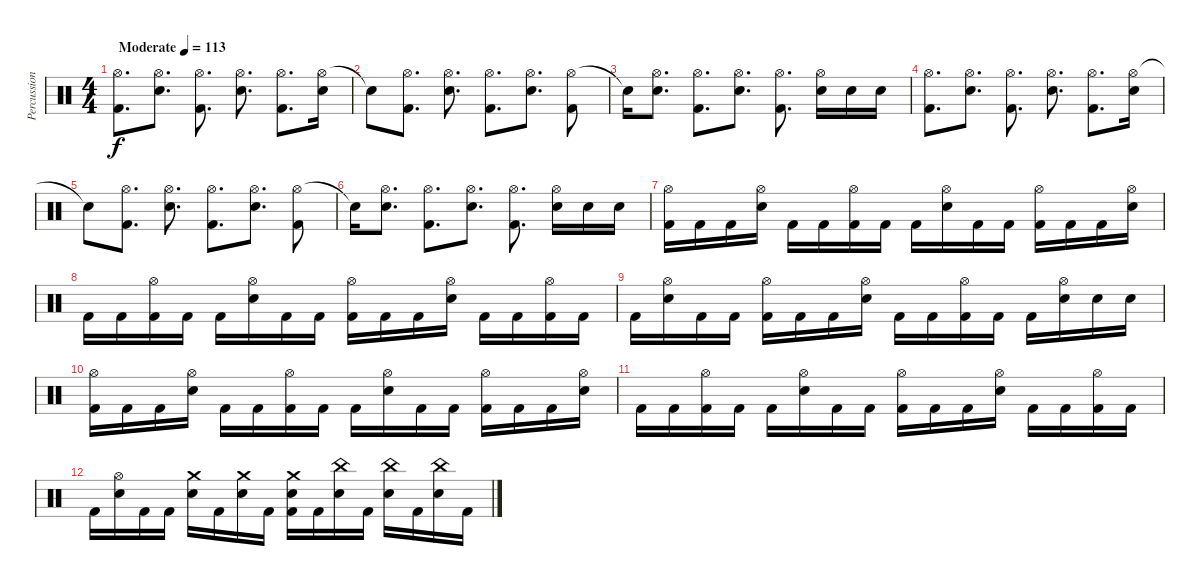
\track ("Percussion" "Percussion") {instrument percussion}
\staff {score}
\articulation defaults
\ts (4 4)
\tempo (113 "Moderate")
\clef neutral
\ks c
("Hi-Hat (open)" "Kick (hit) 2").8{d dy f} ("Hi-Hat (open)" "Electric Snare (hit)").8{d} ("Hi-Hat (open)" "Kick (hit) 2").8{d} ("Hi-Hat (open)" "Electric Snare (hit)").8{d} ("Hi-Hat (open)" "Kick (hit) 2").8{d} ("Hi-Hat (open)" "Electric Snare (hit)").16 |
"Snare (hit)"{t}.8 ("Hi-Hat (open)" "Kick (hit) 2").8{d} ("Hi-Hat (open)" "Electric Snare (hit)").8{d} ("Hi-Hat (open)" "Kick (hit) 2").8{d} ("Hi-Hat (open)" "Electric Snare (hit)").8{d} ("Hi-Hat (open)" "Kick (hit) 2").8 |
"Snare (hit)"{t}.16 ("Hi-Hat (open)" "Electric Snare (hit)").8{d} ("Hi-Hat (open)" "Kick (hit) 2").8{d} ("Hi-Hat (open)" "Electric Snare (hit)").8{d} ("Hi-Hat (open)" "Kick (hit) 2").8{d} ("Hi-Hat (open)" "Electric Snare (hit)").16 "Electric Snare (hit)".16 "Electric Snare (hit)".16 |
("Hi-Hat (open)" "Kick (hit) 2").8{d} ("Hi-Hat (open)" "Electric Snare (hit)").8{d} ("Hi-Hat (open)" "Kick (hit) 2").8{d} ("Hi-Hat (open)" "Electric Snare (hit)").8{d} ("Hi-Hat (open)" "Kick (hit) 2").8{d} ("Hi-Hat (open)" "Electric Snare (hit)").16 |
"Snare (hit)"{t}.8 ("Hi-Hat (open)" "Kick (hit) 2").8{d} ("Hi-Hat (open)" "Electric Snare (hit)").8{d} ("Hi-Hat (open)" "Kick (hit) 2").8{d} ("Hi-Hat (open)" "Electric Snare (hit)").8{d} ("Hi-Hat (open)" "Kick (hit) 2").8 |
"Snare (hit)"{t}.16 ("Hi-Hat (open)" "Electric Snare (hit)").8{d} ("Hi-Hat (open)" "Kick (hit) 2").8{d} ("Hi-Hat (open)" "Electric Snare (hit)").8{d} ("Hi-Hat (open)" "Kick (hit) 2").8{d} ("Hi-Hat (open)" "Electric Snare (hit)").16 "Electric Snare (hit)".16 "Electric Snare (hit)".16 |
("Hi-Hat (open)" "Kick (hit) 2").16 "Kick (hit) 2".16 "Kick (hit) 2".16 ("Hi-Hat (open)" "Electric Snare (hit)").16 "Kick (hit) 2".16 "Kick (hit) 2".16 ("Hi-Hat (open)" "Kick (hit) 2").16 "Kick (hit) 2".16 "Kick (hit) 2".16 ("Hi-Hat (open)" "Electric Snare (hit)").16 "Kick (hit) 2".16 "Kick (hit) 2".16 ("Hi-Hat (open)" "Kick (hit) 2").16 "Kick (hit) 2".16 "Kick (hit) 2".16 ("Hi-Hat (open)" "Electric Snare (hit)").16 |
"Kick (hit) 2".16 "Kick (hit) 2".16 ("Hi-Hat (open)" "Kick (hit) 2").16 "Kick (hit) 2".16 "Kick (hit) 2".16 ("Hi-Hat (open)" "Electric Snare (hit)").16 "Kick (hit) 2".16 "Kick (hit) 2".16 ("Hi-Hat (open)" "Kick (hit) 2").16 "Kick (hit) 2".16 "Kick (hit) 2".16 ("Hi-Hat (open)" "Electric Snare (hit)").16 "Kick (hit) 2".16 "Kick (hit) 2".16 ("Hi-Hat (open)" "Kick (hit) 2").16 "Kick (hit) 2".16 |
"Kick (hit) 2".16 ("Hi-Hat (open)" "Electric Snare (hit)").16 "Kick (hit) 2".16 "Kick (hit) 2".16 ("Hi-Hat (open)" "Kick (hit) 2").16 "Kick (hit) 2".16 "Kick (hit) 2".16 ("Hi-Hat (open)" "Electric Snare (hit)").16 "Kick (hit) 2".16 "Kick (hit) 2".16 ("Hi-Hat (open)" "Kick (hit) 2").16 "Kick (hit) 2".16 "Kick (hit) 2".16 ("Hi-Hat (open)" "Electric Snare (hit)").16 "Electric Snare (hit)".16 "Electric Snare (hit)".16 |
("Hi-Hat (open)" "Kick (hit) 2").16 "Kick (hit) 2".16 "Kick (hit) 2".16 ("Hi-Hat (open)" "Electric Snare (hit)").16 "Kick (hit) 2".16 "Kick (hit) 2".16 ("Hi-Hat (open)" "Kick (hit) 2").16 "Kick (hit) 2".16 "Kick (hit) 2".16 ("Hi-Hat (open)" "Electric Snare (hit)").16 "Kick (hit) 2".16 "Kick (hit) 2".16 ("Hi-Hat (open)" "Kick (hit) 2").16 "Kick (hit) 2".16 "Kick (hit) 2".16 ("Hi-Hat (open)" "Electric Snare (hit)").16 |
"Kick (hit) 2".16 "Kick (hit) 2".16 ("Hi-Hat (open)" "Kick (hit) 2").16 "Kick (hit) 2".16 "Kick (hit) 2".16 ("Hi-Hat (open)" "Electric Snare (hit)").16 "Kick (hit) 2".16 "Kick (hit) 2".16 ("Hi-Hat (open)" "Kick (hit) 2").16 "Kick (hit) 2".16 "Kick (hit) 2".16 ("Hi-Hat (open)" "Electric Snare (hit)").16 "Kick (hit) 2".16 "Kick (hit) 2".16 ("Hi-Hat (open)" "Kick (hit) 2").16 "Kick (hit) 2".16 |
"Kick (hit) 2".16 ("Hi-Hat (open)" "Electric Snare (hit)").16 "Kick (hit) 2".16 "Kick (hit) 2".16 ("Crash medium (hit)" "Electric Snare (hit)").16 "Kick (hit) 2".16 ("Crash medium (hit)" "Electric Snare (hit)").16 "Kick (hit) 2".16 ("Crash medium (hit)" "Electric Snare (hit)" "Kick (hit) 2").16 "Kick (hit) 2".16 ("China (hit)" "Electric Snare (hit)").16 "Kick (hit) 2".16 ("China (hit)" "Electric Snare (hit)").16 "Kick (hit) 2".16 ("China (hit)" "Electric Snare (hit)").16 "Kick (hit) 2".16
